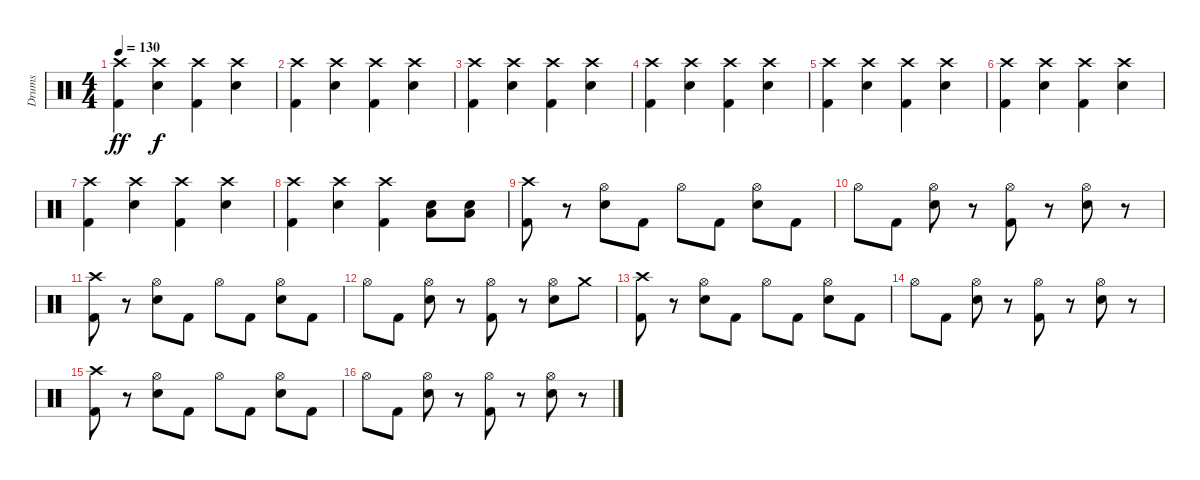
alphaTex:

\track ("Drums" "Drums") {instrument percussion}
\staff {score}
\articulation defaults
\ts (4 4)
\tempo 130
\clef neutral
\ks c
("Crash high (hit)" "Kick (hit) 2").4{dy ff} ("Crash high (hit)" "Electric Snare (hit)").4{dy f} ("Crash high (hit)" "Kick (hit) 2").4 ("Crash high (hit)" "Electric Snare (hit)").4 |
("Crash high (hit)" "Kick (hit) 2").4 ("Crash high (hit)" "Electric Snare (hit)").4 ("Crash high (hit)" "Kick (hit) 2").4 ("Crash high (hit)" "Electric Snare (hit)").4 |
("Crash high (hit)" "Kick (hit) 2").4 ("Crash high (hit)" "Electric Snare (hit)").4 ("Crash high (hit)" "Kick (hit) 2").4 ("Crash high (hit)" "Electric Snare (hit)").4 |
("Crash high (hit)" "Kick (hit) 2").4 ("Crash high (hit)" "Electric Snare (hit)").4 ("Crash high (hit)" "Kick (hit) 2").4 ("Crash high (hit)" "Electric Snare (hit)").4 |
("Crash high (hit)" "Kick (hit) 2").4 ("Crash high (hit)" "Electric Snare (hit)").4 ("Crash high (hit)" "Kick (hit) 2").4 ("Crash high (hit)" "Electric Snare (hit)").4 |
("Crash high (hit)" "Kick (hit) 2").4 ("Crash high (hit)" "Electric Snare (hit)").4 ("Crash high (hit)" "Kick (hit) 2").4 ("Crash high (hit)" "Electric Snare (hit)").4 |
("Crash high (hit)" "Kick (hit) 2").4 ("Crash high (hit)" "Electric Snare (hit)").4 ("Crash high (hit)" "Kick (hit) 2").4 ("Crash high (hit)" "Electric Snare (hit)").4 |
("Crash high (hit)" "Kick (hit) 2").4 ("Crash high (hit)" "Electric Snare (hit)").4 ("Crash high (hit)" "Kick (hit) 2").4 ("Electric Snare (hit)" "Low Floor Tom (hit)").8 ("Electric Snare (hit)" "Low Floor Tom (hit)").8 |
("Crash high (hit)" "Kick (hit) 2").8 r.8 ("Hi-Hat (open)" "Electric Snare (hit)").8 "Kick (hit) 2".8 "Hi-Hat (open)".8 "Kick (hit) 2".8 ("Hi-Hat (open)" "Electric Snare (hit)").8 "Kick (hit) 2".8 |
"Hi-Hat (open)".8 "Kick (hit) 2".8 ("Hi-Hat (open)" "Electric Snare (hit)").8 r.8 ("Hi-Hat (open)" "Kick (hit) 2").8 r.8 ("Hi-Hat (open)" "Electric Snare (hit)").8 r.8 |
("Crash high (hit)" "Kick (hit) 2").8 r.8 ("Hi-Hat (open)" "Electric Snare (hit)").8 "Kick (hit) 2".8 "Hi-Hat (open)".8 "Kick (hit) 2".8 ("Hi-Hat (open)" "Electric Snare (hit)").8 "Kick (hit) 2".8 |
"Hi-Hat (open)".8 "Kick (hit) 2".8 ("Hi-Hat (open)" "Electric Snare (hit)").8 r.8 ("Hi-Hat (open)" "Kick (hit) 2").8 r.8 ("Hi-Hat (open)" "Electric Snare (hit)").8 "Crash medium (hit)".8 |
("Crash high (hit)" "Kick (hit) 2").8 r.8 ("Hi-Hat (open)" "Electric Snare (hit)").8 "Kick (hit) 2".8 "Hi-Hat (open)".8 "Kick (hit) 2".8 ("Hi-Hat (open)" "Electric Snare (hit)").8 "Kick (hit) 2".8 |
"Hi-Hat (open)".8 "Kick (hit) 2".8 ("Hi-Hat (open)" "Electric Snare (hit)").8 r.8 ("Hi-Hat (open)" "Kick (hit) 2").8 r.8 ("Hi-Hat (open)" "Electric Snare (hit)").8 r.8 |
("Crash high (hit)" "Kick (hit) 2").8 r.8 ("Hi-Hat (open)" "Electric Snare (hit)").8 "Kick (hit) 2".8 "Hi-Hat (open)".8 "Kick (hit) 2".8 ("Hi-Hat (open)" "Electric Snare (hit)").8 "Kick (hit) 2".8 |
"Hi-Hat (open)".8 "Kick (hit) 2".8 ("Hi-Hat (open)" "Electric Snare (hit)").8 r.8 ("Hi-Hat (open)" "Kick (hit) 2").8 r.8 ("Hi-Hat (open)" "Electric Snare (hit)").8 r.8
